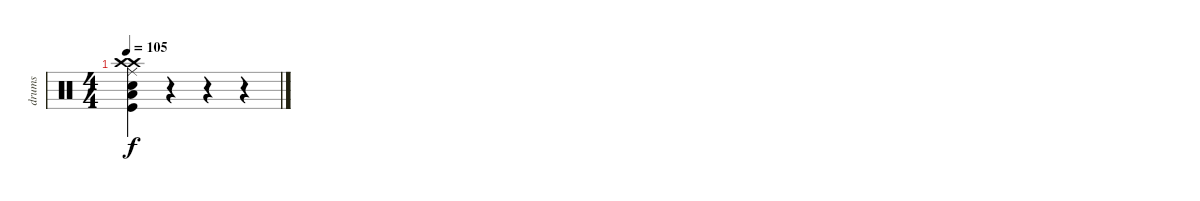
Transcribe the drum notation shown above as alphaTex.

\track ("drums" "drums") {instrument percussion}
\staff {score}
\articulation defaults
\ts (4 4)
\tempo 105
\clef neutral
\ks c
("Ride (middle)" "Crash high (hit)" "Crash high (hit)" "Snare (hit) 2" "Low Floor Tom (hit)" "Kick (hit)").4{dy f} r.4 r.4 r.4
